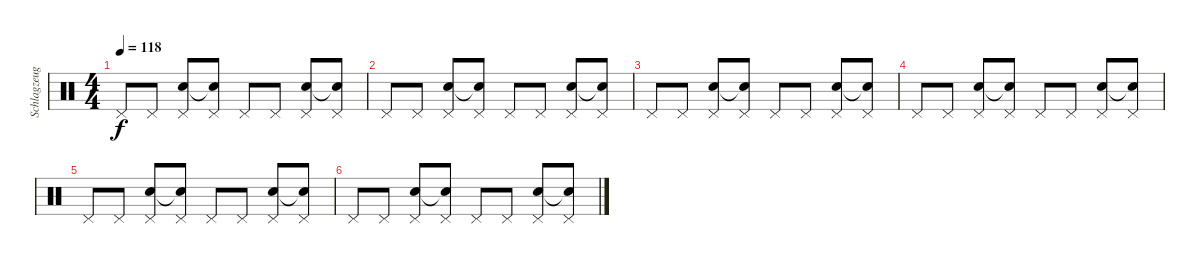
\track ("Schlagzeug" "Schlagzeug") {instrument percussion}
\staff {score}
\articulation defaults
\ts (4 4)
\tempo 118
\clef neutral
\ks c "Pedal Hi-Hat (hit)".8{dy f} "Pedal Hi-Hat (hit)".8
("Pedal Hi-Hat (hit)" "Snare (hit) 2").8 ("Pedal Hi-Hat (hit)" "Snare (hit) 2"{t}).8 "Pedal Hi-Hat (hit)".8 "Pedal Hi-Hat (hit)".8 ("Pedal Hi-Hat (hit)" "Snare (hit) 2").8 ("Pedal Hi-Hat (hit)" "Snare (hit)"{t}).8 |
"Pedal Hi-Hat (hit)".8 "Pedal Hi-Hat (hit)".8 ("Pedal Hi-Hat (hit)" "Snare (hit) 2").8 ("Pedal Hi-Hat (hit)" "Snare (hit) 2"{t}).8 "Pedal Hi-Hat (hit)".8 "Pedal Hi-Hat (hit)".8 ("Pedal Hi-Hat (hit)" "Snare (hit) 2").8 ("Pedal Hi-Hat (hit)" "Snare (hit)"{t}).8 |
"Pedal Hi-Hat (hit)".8 "Pedal Hi-Hat (hit)".8 ("Pedal Hi-Hat (hit)" "Snare (hit) 2").8 ("Pedal Hi-Hat (hit)" "Snare (hit) 2"{t}).8 "Pedal Hi-Hat (hit)".8 "Pedal Hi-Hat (hit)".8 ("Pedal Hi-Hat (hit)" "Snare (hit) 2").8 ("Pedal Hi-Hat (hit)" "Snare (hit)"{t}).8 |
"Pedal Hi-Hat (hit)".8 "Pedal Hi-Hat (hit)".8 ("Pedal Hi-Hat (hit)" "Snare (hit) 2").8 ("Pedal Hi-Hat (hit)" "Snare (hit) 2"{t}).8 "Pedal Hi-Hat (hit)".8 "Pedal Hi-Hat (hit)".8 ("Pedal Hi-Hat (hit)" "Snare (hit) 2").8 ("Pedal Hi-Hat (hit)" "Snare (hit)"{t}).8 |
"Pedal Hi-Hat (hit)".8 "Pedal Hi-Hat (hit)".8 ("Pedal Hi-Hat (hit)" "Snare (hit) 2").8 ("Pedal Hi-Hat (hit)" "Snare (hit) 2"{t}).8 "Pedal Hi-Hat (hit)".8 "Pedal Hi-Hat (hit)".8 ("Pedal Hi-Hat (hit)" "Snare (hit) 2").8 ("Pedal Hi-Hat (hit)" "Snare (hit)"{t}).8 |
"Pedal Hi-Hat (hit)".8 "Pedal Hi-Hat (hit)".8 ("Pedal Hi-Hat (hit)" "Snare (hit) 2").8 ("Pedal Hi-Hat (hit)" "Snare (hit)"{t}).8 "Pedal Hi-Hat (hit)".8 "Pedal Hi-Hat (hit)".8 ("Pedal Hi-Hat (hit)" "Snare (hit) 2").8 ("Pedal Hi-Hat (hit)" "Snare (hit)"{t}).8
